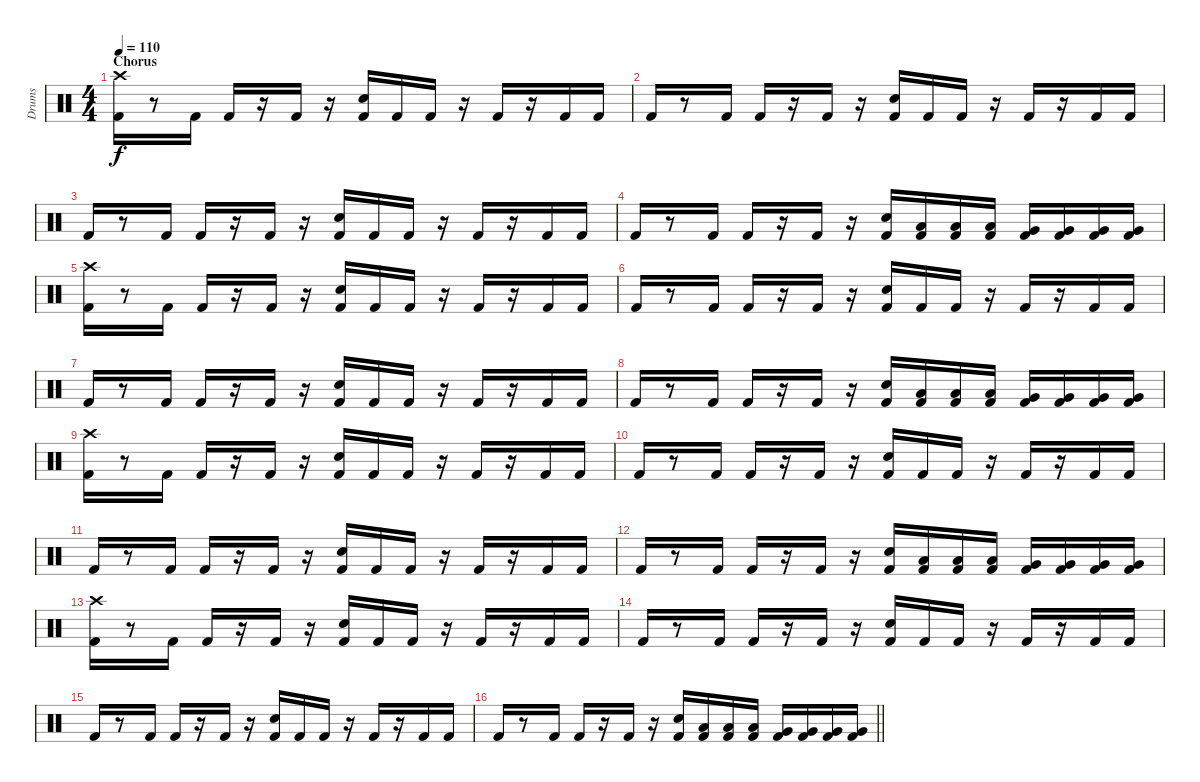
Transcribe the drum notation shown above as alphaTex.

\track ("Drums" "Drums") {instrument percussion}
\staff {score}
\articulation defaults
\ts (4 4)
\section ("" "Chorus")
\tempo 110
\clef neutral
\ks c
("Crash high (hit)" "Kick (hit) 2").16{dy f} r.8 "Kick (hit) 2".16 "Kick (hit) 2".16 r.16 "Kick (hit) 2".16 r.16 ("Electric Snare (hit)" "Kick (hit) 2").16 "Kick (hit) 2".16 "Kick (hit) 2".16 r.16 "Kick (hit) 2".16 r.16 "Kick (hit) 2".16 "Kick (hit) 2".16 |
"Kick (hit) 2".16 r.8 "Kick (hit) 2".16 "Kick (hit) 2".16 r.16 "Kick (hit) 2".16 r.16 ("Electric Snare (hit)" "Kick (hit) 2").16 "Kick (hit) 2".16 "Kick (hit) 2".16 r.16 "Kick (hit) 2".16 r.16 "Kick (hit) 2".16 "Kick (hit) 2".16 |
"Kick (hit) 2".16 r.8 "Kick (hit) 2".16 "Kick (hit) 2".16 r.16 "Kick (hit) 2".16 r.16 ("Electric Snare (hit)" "Kick (hit) 2").16 "Kick (hit) 2".16 "Kick (hit) 2".16 r.16 "Kick (hit) 2".16 r.16 "Kick (hit) 2".16 "Kick (hit) 2".16 |
"Kick (hit) 2".16 r.8 "Kick (hit) 2".16 "Kick (hit) 2".16 r.16 "Kick (hit) 2".16 r.16 ("Electric Snare (hit)" "Kick (hit) 2").16 ("Low Tom (hit)" "Kick (hit) 2").16 ("Low Tom (hit)" "Kick (hit) 2").16 ("Low Tom (hit)" "Kick (hit) 2").16 ("Very Low Tom (hit)" "Kick (hit) 2").16 ("Very Low Tom (hit)" "Kick (hit) 2").16 ("Very Low Tom (hit)" "Kick (hit) 2").16 ("Very Low Tom (hit)" "Kick (hit) 2").16 |
("Crash high (hit)" "Kick (hit) 2").16 r.8 "Kick (hit) 2".16 "Kick (hit) 2".16 r.16 "Kick (hit) 2".16 r.16 ("Electric Snare (hit)" "Kick (hit) 2").16 "Kick (hit) 2".16 "Kick (hit) 2".16 r.16 "Kick (hit) 2".16 r.16 "Kick (hit) 2".16 "Kick (hit) 2".16 |
"Kick (hit) 2".16 r.8 "Kick (hit) 2".16 "Kick (hit) 2".16 r.16 "Kick (hit) 2".16 r.16 ("Electric Snare (hit)" "Kick (hit) 2").16 "Kick (hit) 2".16 "Kick (hit) 2".16 r.16 "Kick (hit) 2".16 r.16 "Kick (hit) 2".16 "Kick (hit) 2".16 |
"Kick (hit) 2".16 r.8 "Kick (hit) 2".16 "Kick (hit) 2".16 r.16 "Kick (hit) 2".16 r.16 ("Electric Snare (hit)" "Kick (hit) 2").16 "Kick (hit) 2".16 "Kick (hit) 2".16 r.16 "Kick (hit) 2".16 r.16 "Kick (hit) 2".16 "Kick (hit) 2".16 |
"Kick (hit) 2".16 r.8 "Kick (hit) 2".16 "Kick (hit) 2".16 r.16 "Kick (hit) 2".16 r.16 ("Electric Snare (hit)" "Kick (hit) 2").16 ("Low Tom (hit)" "Kick (hit) 2").16 ("Low Tom (hit)" "Kick (hit) 2").16 ("Low Tom (hit)" "Kick (hit) 2").16 ("Very Low Tom (hit)" "Kick (hit) 2").16 ("Very Low Tom (hit)" "Kick (hit) 2").16 ("Very Low Tom (hit)" "Kick (hit) 2").16 ("Very Low Tom (hit)" "Kick (hit) 2").16 |
("Crash high (hit)" "Kick (hit) 2").16 r.8 "Kick (hit) 2".16 "Kick (hit) 2".16 r.16 "Kick (hit) 2".16 r.16 ("Electric Snare (hit)" "Kick (hit) 2").16 "Kick (hit) 2".16 "Kick (hit) 2".16 r.16 "Kick (hit) 2".16 r.16 "Kick (hit) 2".16 "Kick (hit) 2".16 |
"Kick (hit) 2".16 r.8 "Kick (hit) 2".16 "Kick (hit) 2".16 r.16 "Kick (hit) 2".16 r.16 ("Electric Snare (hit)" "Kick (hit) 2").16 "Kick (hit) 2".16 "Kick (hit) 2".16 r.16 "Kick (hit) 2".16 r.16 "Kick (hit) 2".16 "Kick (hit) 2".16 |
"Kick (hit) 2".16 r.8 "Kick (hit) 2".16 "Kick (hit) 2".16 r.16 "Kick (hit) 2".16 r.16 ("Electric Snare (hit)" "Kick (hit) 2").16 "Kick (hit) 2".16 "Kick (hit) 2".16 r.16 "Kick (hit) 2".16 r.16 "Kick (hit) 2".16 "Kick (hit) 2".16 |
"Kick (hit) 2".16 r.8 "Kick (hit) 2".16 "Kick (hit) 2".16 r.16 "Kick (hit) 2".16 r.16 ("Electric Snare (hit)" "Kick (hit) 2").16 ("Low Tom (hit)" "Kick (hit) 2").16 ("Low Tom (hit)" "Kick (hit) 2").16 ("Low Tom (hit)" "Kick (hit) 2").16 ("Very Low Tom (hit)" "Kick (hit) 2").16 ("Very Low Tom (hit)" "Kick (hit) 2").16 ("Very Low Tom (hit)" "Kick (hit) 2").16 ("Very Low Tom (hit)" "Kick (hit) 2").16 |
("Crash high (hit)" "Kick (hit) 2").16 r.8 "Kick (hit) 2".16 "Kick (hit) 2".16 r.16 "Kick (hit) 2".16 r.16 ("Electric Snare (hit)" "Kick (hit) 2").16 "Kick (hit) 2".16 "Kick (hit) 2".16 r.16 "Kick (hit) 2".16 r.16 "Kick (hit) 2".16 "Kick (hit) 2".16 |
"Kick (hit) 2".16 r.8 "Kick (hit) 2".16 "Kick (hit) 2".16 r.16 "Kick (hit) 2".16 r.16 ("Electric Snare (hit)" "Kick (hit) 2").16 "Kick (hit) 2".16 "Kick (hit) 2".16 r.16 "Kick (hit) 2".16 r.16 "Kick (hit) 2".16 "Kick (hit) 2".16 |
"Kick (hit) 2".16 r.8 "Kick (hit) 2".16 "Kick (hit) 2".16 r.16 "Kick (hit) 2".16 r.16 ("Electric Snare (hit)" "Kick (hit) 2").16 "Kick (hit) 2".16 "Kick (hit) 2".16 r.16 "Kick (hit) 2".16 r.16 "Kick (hit) 2".16 "Kick (hit) 2".16 |
\barLineRight lightlight "Kick (hit) 2".16
r.8 "Kick (hit) 2".16 "Kick (hit) 2".16 r.16 "Kick (hit) 2".16 r.16 ("Electric Snare (hit)" "Kick (hit) 2").16 ("Low Tom (hit)" "Kick (hit) 2").16 ("Low Tom (hit)" "Kick (hit) 2").16 ("Low Tom (hit)" "Kick (hit) 2").16 ("Very Low Tom (hit)" "Kick (hit) 2").16 ("Very Low Tom (hit)" "Kick (hit) 2").16 ("Very Low Tom (hit)" "Kick (hit) 2").16 ("Very Low Tom (hit)" "Kick (hit) 2").16
